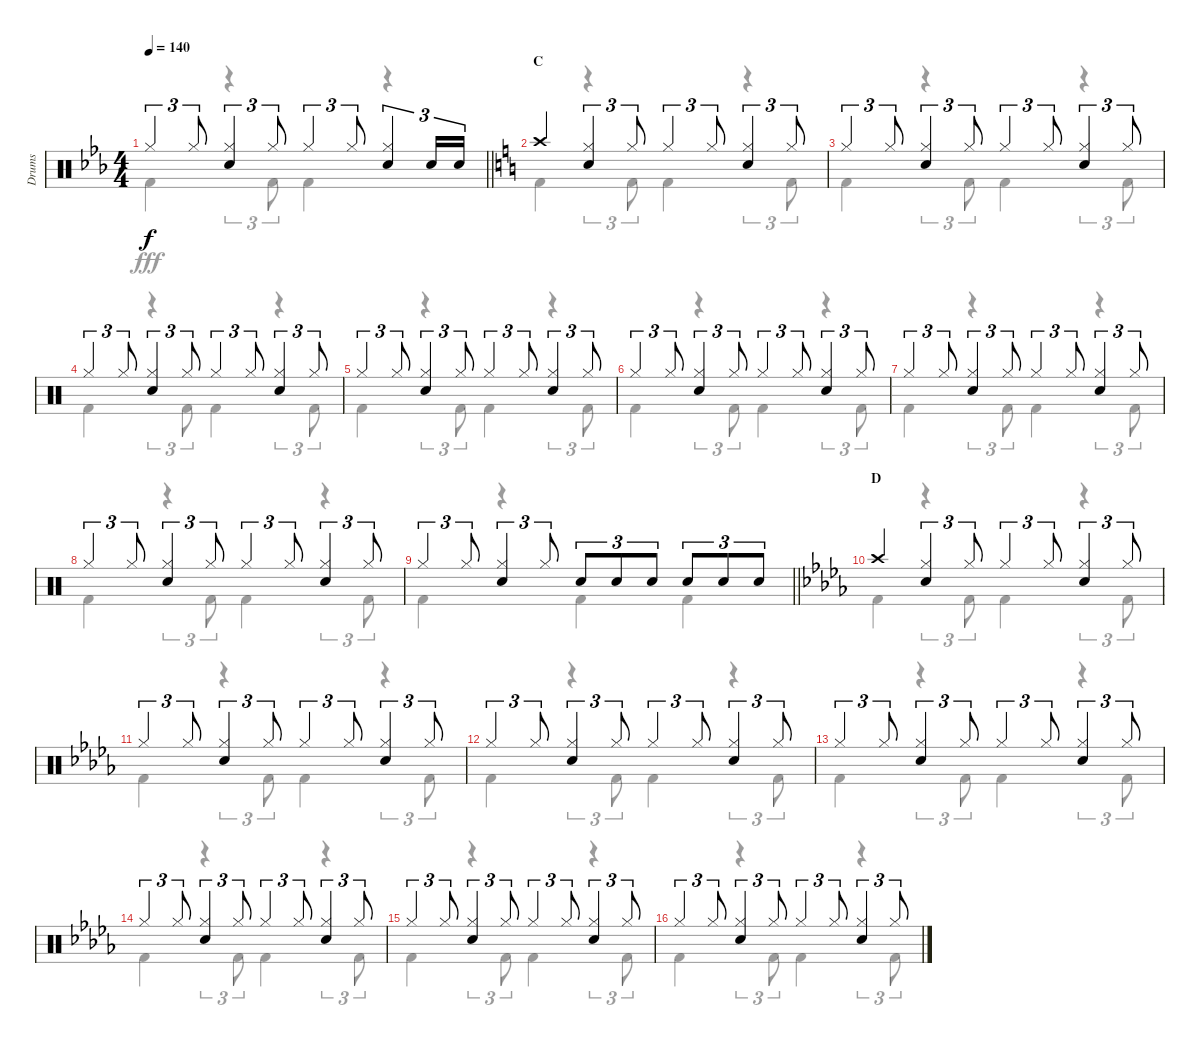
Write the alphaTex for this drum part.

\track ("Drums" "Drums") {instrument percussion}
\staff {score}
\articulation defaults
\voice
\ts (4 4)
\tempo 140
\clef neutral
\barLineRight lightlight
\ks eb "Hi-Hat (closed)".4{tu (3 2) dy f} "Hi-Hat (closed)".8{tu (3 2)}
("Hi-Hat (closed)" "Snare (hit) 2").4{tu (3 2)} "Hi-Hat (closed)".8{tu (3 2)} "Hi-Hat (closed)".4{tu (3 2)} "Hi-Hat (closed)".8{tu (3 2)} ("Hi-Hat (closed)" "Snare (hit) 2").4{tu (3 2)} "Snare (hit) 2".16{tu (3 2)} "Snare (hit) 2".16{tu (3 2)} |
\section ("" "C")
\ks c "Crash high (hit)".4
("Hi-Hat (closed)" "Snare (hit) 2").4{tu (3 2)} "Hi-Hat (closed)".8{tu (3 2)} "Hi-Hat (closed)".4{tu (3 2)} "Hi-Hat (closed)".8{tu (3 2)} ("Hi-Hat (closed)" "Snare (hit) 2").4{tu (3 2)} "Hi-Hat (closed)".8{tu (3 2)} |
"Hi-Hat (closed)".4{tu (3 2)} "Hi-Hat (closed)".8{tu (3 2)} ("Hi-Hat (closed)" "Snare (hit) 2").4{tu (3 2)} "Hi-Hat (closed)".8{tu (3 2)} "Hi-Hat (closed)".4{tu (3 2)} "Hi-Hat (closed)".8{tu (3 2)} ("Hi-Hat (closed)" "Snare (hit) 2").4{tu (3 2)} "Hi-Hat (closed)".8{tu (3 2)} |
"Hi-Hat (closed)".4{tu (3 2)} "Hi-Hat (closed)".8{tu (3 2)} ("Hi-Hat (closed)" "Snare (hit) 2").4{tu (3 2)} "Hi-Hat (closed)".8{tu (3 2)} "Hi-Hat (closed)".4{tu (3 2)} "Hi-Hat (closed)".8{tu (3 2)} ("Hi-Hat (closed)" "Snare (hit) 2").4{tu (3 2)} "Hi-Hat (closed)".8{tu (3 2)} |
"Hi-Hat (closed)".4{tu (3 2)} "Hi-Hat (closed)".8{tu (3 2)} ("Hi-Hat (closed)" "Snare (hit) 2").4{tu (3 2)} "Hi-Hat (closed)".8{tu (3 2)} "Hi-Hat (closed)".4{tu (3 2)} "Hi-Hat (closed)".8{tu (3 2)} ("Hi-Hat (closed)" "Snare (hit) 2").4{tu (3 2)} "Hi-Hat (closed)".8{tu (3 2)} |
"Hi-Hat (closed)".4{tu (3 2)} "Hi-Hat (closed)".8{tu (3 2)} ("Hi-Hat (closed)" "Snare (hit) 2").4{tu (3 2)} "Hi-Hat (closed)".8{tu (3 2)} "Hi-Hat (closed)".4{tu (3 2)} "Hi-Hat (closed)".8{tu (3 2)} ("Hi-Hat (closed)" "Snare (hit) 2").4{tu (3 2)} "Hi-Hat (closed)".8{tu (3 2)} |
"Hi-Hat (closed)".4{tu (3 2)} "Hi-Hat (closed)".8{tu (3 2)} ("Hi-Hat (closed)" "Snare (hit) 2").4{tu (3 2)} "Hi-Hat (closed)".8{tu (3 2)} "Hi-Hat (closed)".4{tu (3 2)} "Hi-Hat (closed)".8{tu (3 2)} ("Hi-Hat (closed)" "Snare (hit) 2").4{tu (3 2)} "Hi-Hat (closed)".8{tu (3 2)} |
"Hi-Hat (closed)".4{tu (3 2)} "Hi-Hat (closed)".8{tu (3 2)} ("Hi-Hat (closed)" "Snare (hit) 2").4{tu (3 2)} "Hi-Hat (closed)".8{tu (3 2)} "Hi-Hat (closed)".4{tu (3 2)} "Hi-Hat (closed)".8{tu (3 2)} ("Hi-Hat (closed)" "Snare (hit) 2").4{tu (3 2)} "Hi-Hat (closed)".8{tu (3 2)} |
\barLineRight lightlight "Hi-Hat (closed)".4{tu (3 2)} "Hi-Hat (closed)".8{tu (3 2)}
("Hi-Hat (closed)" "Snare (hit) 2").4{tu (3 2)} "Hi-Hat (closed)".8{tu (3 2)} "Snare (hit) 2".8{tu (3 2)} "Snare (hit) 2".8{tu (3 2)} "Snare (hit) 2".8{tu (3 2)} "Snare (hit) 2".8{tu (3 2)} "Snare (hit) 2".8{tu (3 2)} "Snare (hit) 2".8{tu (3 2)} |
\section ("" "D")
\ks db "Crash high (hit)".4
("Hi-Hat (closed)" "Snare (hit) 2").4{tu (3 2)} "Hi-Hat (closed)".8{tu (3 2)} "Hi-Hat (closed)".4{tu (3 2)} "Hi-Hat (closed)".8{tu (3 2)} ("Hi-Hat (closed)" "Snare (hit) 2").4{tu (3 2)} "Hi-Hat (closed)".8{tu (3 2)} |
"Hi-Hat (closed)".4{tu (3 2)} "Hi-Hat (closed)".8{tu (3 2)} ("Hi-Hat (closed)" "Snare (hit) 2").4{tu (3 2)} "Hi-Hat (closed)".8{tu (3 2)} "Hi-Hat (closed)".4{tu (3 2)} "Hi-Hat (closed)".8{tu (3 2)} ("Hi-Hat (closed)" "Snare (hit) 2").4{tu (3 2)} "Hi-Hat (closed)".8{tu (3 2)} |
"Hi-Hat (closed)".4{tu (3 2)} "Hi-Hat (closed)".8{tu (3 2)} ("Hi-Hat (closed)" "Snare (hit) 2").4{tu (3 2)} "Hi-Hat (closed)".8{tu (3 2)} "Hi-Hat (closed)".4{tu (3 2)} "Hi-Hat (closed)".8{tu (3 2)} ("Hi-Hat (closed)" "Snare (hit) 2").4{tu (3 2)} "Hi-Hat (closed)".8{tu (3 2)} |
"Hi-Hat (closed)".4{tu (3 2)} "Hi-Hat (closed)".8{tu (3 2)} ("Hi-Hat (closed)" "Snare (hit) 2").4{tu (3 2)} "Hi-Hat (closed)".8{tu (3 2)} "Hi-Hat (closed)".4{tu (3 2)} "Hi-Hat (closed)".8{tu (3 2)} ("Hi-Hat (closed)" "Snare (hit) 2").4{tu (3 2)} "Hi-Hat (closed)".8{tu (3 2)} |
"Hi-Hat (closed)".4{tu (3 2)} "Hi-Hat (closed)".8{tu (3 2)} ("Hi-Hat (closed)" "Snare (hit) 2").4{tu (3 2)} "Hi-Hat (closed)".8{tu (3 2)} "Hi-Hat (closed)".4{tu (3 2)} "Hi-Hat (closed)".8{tu (3 2)} ("Hi-Hat (closed)" "Snare (hit) 2").4{tu (3 2)} "Hi-Hat (closed)".8{tu (3 2)} |
"Hi-Hat (closed)".4{tu (3 2)} "Hi-Hat (closed)".8{tu (3 2)} ("Hi-Hat (closed)" "Snare (hit) 2").4{tu (3 2)} "Hi-Hat (closed)".8{tu (3 2)} "Hi-Hat (closed)".4{tu (3 2)} "Hi-Hat (closed)".8{tu (3 2)} ("Hi-Hat (closed)" "Snare (hit) 2").4{tu (3 2)} "Hi-Hat (closed)".8{tu (3 2)} |
"Hi-Hat (closed)".4{tu (3 2)} "Hi-Hat (closed)".8{tu (3 2)} ("Hi-Hat (closed)" "Snare (hit) 2").4{tu (3 2)} "Hi-Hat (closed)".8{tu (3 2)} "Hi-Hat (closed)".4{tu (3 2)} "Hi-Hat (closed)".8{tu (3 2)} ("Hi-Hat (closed)" "Snare (hit) 2").4{tu (3 2)} "Hi-Hat (closed)".8{tu (3 2)}
\voice
\clef neutral
\ottava regular
\simile none
\barLineRight lightlight
\ks eb "Kick (hit) 2".4{dy fff}
r.4{tu (3 2)} "Kick (hit) 2".8{tu (3 2)} "Kick (hit) 2".4 r.4 |
\ks c "Kick (hit) 2".4
r.4{tu (3 2)} "Kick (hit) 2".8{tu (3 2)} "Kick (hit) 2".4 r.4{tu (3 2)} "Kick (hit) 2".8{tu (3 2)} |
"Kick (hit) 2".4 r.4{tu (3 2)} "Kick (hit) 2".8{tu (3 2)} "Kick (hit) 2".4 r.4{tu (3 2)} "Kick (hit) 2".8{tu (3 2)} |
"Kick (hit) 2".4 r.4{tu (3 2)} "Kick (hit) 2".8{tu (3 2)} "Kick (hit) 2".4 r.4{tu (3 2)} "Kick (hit) 2".8{tu (3 2)} |
"Kick (hit) 2".4 r.4{tu (3 2)} "Kick (hit) 2".8{tu (3 2)} "Kick (hit) 2".4 r.4{tu (3 2)} "Kick (hit) 2".8{tu (3 2)} |
"Kick (hit) 2".4 r.4{tu (3 2)} "Kick (hit) 2".8{tu (3 2)} "Kick (hit) 2".4 r.4{tu (3 2)} "Kick (hit) 2".8{tu (3 2)} |
"Kick (hit) 2".4 r.4{tu (3 2)} "Kick (hit) 2".8{tu (3 2)} "Kick (hit) 2".4 r.4{tu (3 2)} "Kick (hit) 2".8{tu (3 2)} |
"Kick (hit) 2".4 r.4{tu (3 2)} "Kick (hit) 2".8{tu (3 2)} "Kick (hit) 2".4 r.4{tu (3 2)} "Kick (hit) 2".8{tu (3 2)} |
\barLineRight lightlight "Kick (hit) 2".4
r.4 "Kick (hit) 2".4 "Kick (hit) 2".4 |
\ks db "Kick (hit) 2".4
r.4{tu (3 2)} "Kick (hit) 2".8{tu (3 2)} "Kick (hit) 2".4 r.4{tu (3 2)} "Kick (hit) 2".8{tu (3 2)} |
"Kick (hit) 2".4 r.4{tu (3 2)} "Kick (hit) 2".8{tu (3 2)} "Kick (hit) 2".4 r.4{tu (3 2)} "Kick (hit) 2".8{tu (3 2)} |
"Kick (hit) 2".4 r.4{tu (3 2)} "Kick (hit) 2".8{tu (3 2)} "Kick (hit) 2".4 r.4{tu (3 2)} "Kick (hit) 2".8{tu (3 2)} |
"Kick (hit) 2".4 r.4{tu (3 2)} "Kick (hit) 2".8{tu (3 2)} "Kick (hit) 2".4 r.4{tu (3 2)} "Kick (hit) 2".8{tu (3 2)} |
"Kick (hit) 2".4 r.4{tu (3 2)} "Kick (hit) 2".8{tu (3 2)} "Kick (hit) 2".4 r.4{tu (3 2)} "Kick (hit) 2".8{tu (3 2)} |
"Kick (hit) 2".4 r.4{tu (3 2)} "Kick (hit) 2".8{tu (3 2)} "Kick (hit) 2".4 r.4{tu (3 2)} "Kick (hit) 2".8{tu (3 2)} |
"Kick (hit) 2".4 r.4{tu (3 2)} "Kick (hit) 2".8{tu (3 2)} "Kick (hit) 2".4 r.4{tu (3 2)} "Kick (hit) 2".8{tu (3 2)}
